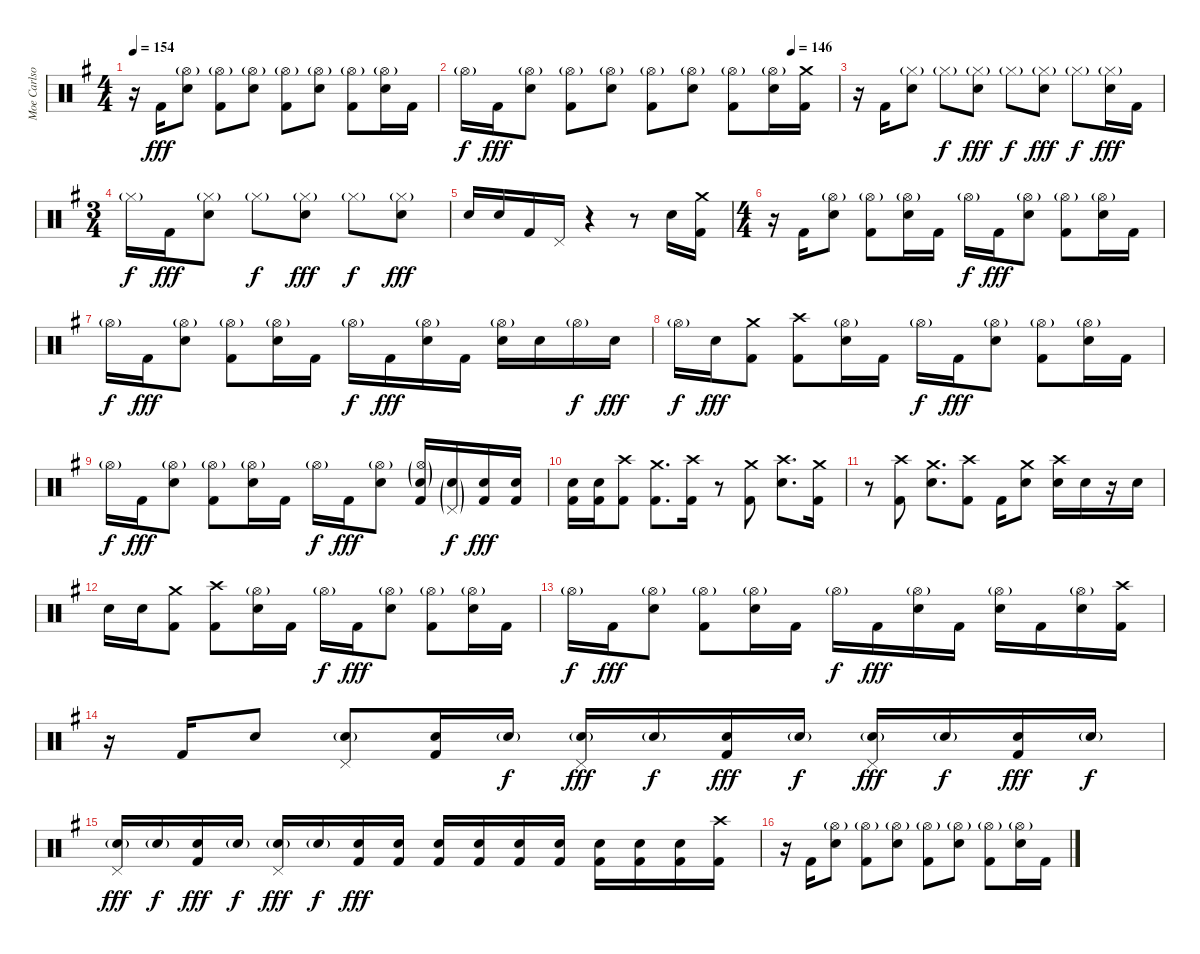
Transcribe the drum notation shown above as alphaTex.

\track ("Moe Carlson" "Moe Carlso") {instrument percussion}
\staff {score}
\articulation defaults
\ts (4 4)
\tempo 154
\clef neutral
\ks g
r.16{dy fff} "Kick (hit) 2".16 ("Hi-Hat (open)"{g} "Electric Snare (hit)").8 ("Hi-Hat (open)"{g} "Kick (hit) 2").8 ("Hi-Hat (open)"{g} "Electric Snare (hit)").8 ("Hi-Hat (open)"{g} "Kick (hit) 2").8 ("Hi-Hat (open)"{g} "Electric Snare (hit)").8 ("Hi-Hat (open)"{g} "Kick (hit) 2").8 ("Hi-Hat (open)"{g} "Electric Snare (hit)").16 "Kick (hit) 2".16 |
\tempo (146 0.875)
"Hi-Hat (open)"{g}.16{dy f} "Kick (hit) 2".16{dy fff} ("Hi-Hat (open)"{g} "Electric Snare (hit)").8 ("Hi-Hat (open)"{g} "Kick (hit) 2").8 ("Hi-Hat (open)"{g} "Electric Snare (hit)").8 ("Hi-Hat (open)"{g} "Kick (hit) 2").8 ("Hi-Hat (open)"{g} "Electric Snare (hit)").8 ("Hi-Hat (open)"{g} "Kick (hit) 2").8 ("Hi-Hat (open)"{g} "Electric Snare (hit)").16 ("Crash medium (hit)" "Kick (hit) 2").16 |
r.16 "Kick (hit) 2".16 ("Hi-Hat (closed)"{g} "Electric Snare (hit)").8 "Hi-Hat (closed)"{g}.8{dy f} ("Hi-Hat (closed)"{g} "Electric Snare (hit)").8{dy fff} "Hi-Hat (closed)"{g}.8{dy f} ("Hi-Hat (closed)"{g} "Electric Snare (hit)").8{dy fff} "Hi-Hat (closed)"{g}.8{dy f} ("Hi-Hat (closed)"{g} "Electric Snare (hit)").16{dy fff} "Kick (hit) 2".16 |
\ts (3 4)
"Hi-Hat (closed)"{g}.16{dy f} "Kick (hit) 2".16{dy fff} ("Hi-Hat (closed)"{g} "Electric Snare (hit)").8 "Hi-Hat (closed)"{g}.8{dy f} ("Hi-Hat (closed)"{g} "Electric Snare (hit)").8{dy fff} "Hi-Hat (closed)"{g}.8{dy f} ("Hi-Hat (closed)"{g} "Electric Snare (hit)").8{dy fff} |
"Electric Snare (hit)".16 "Electric Snare (hit)".16 "Kick (hit) 2".16 "Pedal Hi-Hat (hit)".16 r.4 r.8 "Electric Snare (hit)".16 ("Crash medium (hit)" "Kick (hit) 2").16 |
\ts (4 4)
r.16 "Kick (hit) 2".16 ("Hi-Hat (open)"{g} "Electric Snare (hit)").8 ("Hi-Hat (open)"{g} "Kick (hit) 2").8 ("Hi-Hat (open)"{g} "Electric Snare (hit)").16 "Kick (hit) 2".16 "Hi-Hat (open)"{g}.16{dy f} "Kick (hit) 2".16{dy fff} ("Hi-Hat (open)"{g} "Electric Snare (hit)").8 ("Hi-Hat (open)"{g} "Kick (hit) 2").8 ("Hi-Hat (open)"{g} "Electric Snare (hit)").16 "Kick (hit) 2".16 |
"Hi-Hat (open)"{g}.16{dy f} "Kick (hit) 2".16{dy fff} ("Hi-Hat (open)"{g} "Electric Snare (hit)").8 ("Hi-Hat (open)"{g} "Kick (hit) 2").8 ("Hi-Hat (open)"{g} "Electric Snare (hit)").16 "Kick (hit) 2".16 "Hi-Hat (open)"{g}.16{dy f} "Kick (hit) 2".16{dy fff} ("Hi-Hat (open)"{g} "Electric Snare (hit)").16 "Kick (hit) 2".16 ("Hi-Hat (open)"{g} "Electric Snare (hit)").16 "Electric Snare (hit)".16 "Hi-Hat (open)"{g}.16{dy f} "Electric Snare (hit)".16{dy fff} |
"Hi-Hat (open)"{g}.16{dy f} "Electric Snare (hit)".16{dy fff} ("Crash medium (hit)" "Kick (hit) 2").8 ("Crash high (hit)" "Kick (hit) 2").8 ("Hi-Hat (open)"{g} "Electric Snare (hit)").16 "Kick (hit) 2".16 "Hi-Hat (open)"{g}.16{dy f} "Kick (hit) 2".16{dy fff} ("Hi-Hat (open)"{g} "Electric Snare (hit)").8 ("Hi-Hat (open)"{g} "Kick (hit) 2").8 ("Hi-Hat (open)"{g} "Electric Snare (hit)").16 "Kick (hit) 2".16 |
"Hi-Hat (open)"{g}.16{dy f} "Kick (hit) 2".16{dy fff} ("Hi-Hat (open)"{g} "Electric Snare (hit)").8 ("Hi-Hat (open)"{g} "Kick (hit) 2").8 ("Hi-Hat (open)"{g} "Electric Snare (hit)").16 "Kick (hit) 2".16 "Hi-Hat (open)"{g}.16{dy f} "Kick (hit) 2".16{dy fff} ("Hi-Hat (open)"{g} "Electric Snare (hit)").8 ("Hi-Hat (open)"{g} "Electric Snare (hit)"{g} "Kick (hit) 2").16 ("Electric Snare (hit)"{g} "Pedal Hi-Hat (hit)"{g}).16{dy f} ("Electric Snare (hit)" "Kick (hit) 2").16{dy fff} ("Electric Snare (hit)" "Kick (hit) 2").16 |
("Electric Snare (hit)" "Kick (hit) 2").16 ("Electric Snare (hit)" "Kick (hit) 2").16 ("Crash high (hit)" "Kick (hit) 2").8 ("Crash medium (hit)" "Kick (hit) 2").8{d} ("Crash high (hit)" "Kick (hit) 2").16 r.8 ("Crash medium (hit)" "Kick (hit) 2").8 ("Crash high (hit)" "Electric Snare (hit)").8{d} ("Crash medium (hit)" "Kick (hit) 2").16 |
r.8 ("Crash high (hit)" "Kick (hit) 2").8 ("Crash medium (hit)" "Electric Snare (hit)").8{d} ("Crash high (hit)" "Kick (hit) 2").8 "Kick (hit) 2".16 ("Crash medium (hit)" "Electric Snare (hit)").8 ("Crash high (hit)" "Electric Snare (hit)").16 "Electric Snare (hit)".16 r.16 "Electric Snare (hit)".16 |
"Electric Snare (hit)".16 "Electric Snare (hit)".16 ("Crash medium (hit)" "Kick (hit) 2").8 ("Crash high (hit)" "Kick (hit) 2").8 ("Hi-Hat (open)"{g} "Electric Snare (hit)").16 "Kick (hit) 2".16 "Hi-Hat (open)"{g}.16{dy f} "Kick (hit) 2".16{dy fff} ("Hi-Hat (open)"{g} "Electric Snare (hit)").8 ("Hi-Hat (open)"{g} "Kick (hit) 2").8 ("Hi-Hat (open)"{g} "Electric Snare (hit)").16 "Kick (hit) 2".16 |
"Hi-Hat (open)"{g}.16{dy f} "Kick (hit) 2".16{dy fff} ("Hi-Hat (open)"{g} "Electric Snare (hit)").8 ("Hi-Hat (open)"{g} "Kick (hit) 2").8 ("Hi-Hat (open)"{g} "Electric Snare (hit)").16 "Kick (hit) 2".16 "Hi-Hat (open)"{g}.16{dy f} "Kick (hit) 2".16{dy fff} ("Hi-Hat (open)"{g} "Electric Snare (hit)").16 "Kick (hit) 2".16 ("Hi-Hat (open)"{g} "Electric Snare (hit)").16 "Kick (hit) 2".16 ("Hi-Hat (open)"{g} "Electric Snare (hit)").16 ("Crash high (hit)" "Kick (hit) 2").16 |
r.16 "Kick (hit) 2".16 "Electric Snare (hit)".8 ("Electric Snare (hit)"{g} "Pedal Hi-Hat (hit)").8 ("Electric Snare (hit)" "Kick (hit) 2").16 "Electric Snare (hit)"{g}.16{dy f} ("Electric Snare (hit)"{g} "Pedal Hi-Hat (hit)").16{dy fff} "Electric Snare (hit)"{g}.16{dy f} ("Electric Snare (hit)" "Kick (hit) 2").16{dy fff} "Electric Snare (hit)"{g}.16{dy f} ("Electric Snare (hit)"{g} "Pedal Hi-Hat (hit)").16{dy fff} "Electric Snare (hit)"{g}.16{dy f} ("Electric Snare (hit)" "Kick (hit) 2").16{dy fff} "Electric Snare (hit)"{g}.16{dy f} |
("Electric Snare (hit)"{g} "Pedal Hi-Hat (hit)").16{dy fff} "Electric Snare (hit)"{g}.16{dy f} ("Electric Snare (hit)" "Kick (hit) 2").16{dy fff} "Electric Snare (hit)"{g}.16{dy f} ("Electric Snare (hit)"{g} "Pedal Hi-Hat (hit)").16{dy fff} "Electric Snare (hit)"{g}.16{dy f} ("Electric Snare (hit)" "Kick (hit) 2").16{dy fff} ("Electric Snare (hit)" "Kick (hit) 2").16 ("Electric Snare (hit)" "Kick (hit) 2").16 ("Electric Snare (hit)" "Kick (hit) 2").16 ("Electric Snare (hit)" "Kick (hit) 2").16 ("Electric Snare (hit)" "Kick (hit) 2").16 ("Electric Snare (hit)" "Kick (hit) 2").16 ("Electric Snare (hit)" "Kick (hit) 2").16 ("Electric Snare (hit)" "Kick (hit) 2").16 ("Crash high (hit)" "Kick (hit) 2").16 |
r.16 "Kick (hit) 2".16 ("Hi-Hat (open)"{g} "Electric Snare (hit)").8 ("Hi-Hat (open)"{g} "Kick (hit) 2").8 ("Hi-Hat (open)"{g} "Electric Snare (hit)").8 ("Hi-Hat (open)"{g} "Kick (hit) 2").8 ("Hi-Hat (open)"{g} "Electric Snare (hit)").8 ("Hi-Hat (open)"{g} "Kick (hit) 2").8 ("Hi-Hat (open)"{g} "Electric Snare (hit)").16 "Kick (hit) 2".16
